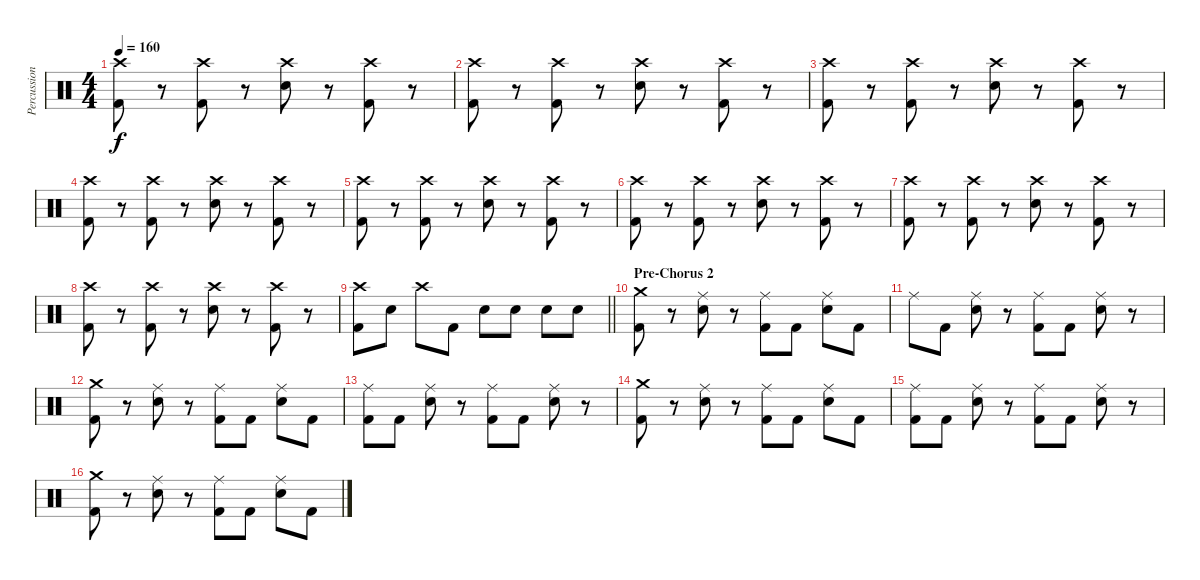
\track ("Percussion" "Percussion") {instrument percussion}
\staff {score}
\articulation defaults
\ts (4 4)
\tempo 160
\clef neutral
\ks c
("Crash high (hit)" "Kick (hit) 2").8{dy f} r.8 ("Crash high (hit)" "Kick (hit) 2").8 r.8 ("Crash high (hit)" "Electric Snare (hit)").8 r.8 ("Crash high (hit)" "Kick (hit) 2").8 r.8 |
("Crash high (hit)" "Kick (hit) 2").8 r.8 ("Crash high (hit)" "Kick (hit) 2").8 r.8 ("Crash high (hit)" "Electric Snare (hit)").8 r.8 ("Crash high (hit)" "Kick (hit) 2").8 r.8 |
("Crash high (hit)" "Kick (hit) 2").8 r.8 ("Crash high (hit)" "Kick (hit) 2").8 r.8 ("Crash high (hit)" "Electric Snare (hit)").8 r.8 ("Crash high (hit)" "Kick (hit) 2").8 r.8 |
("Crash high (hit)" "Kick (hit) 2").8 r.8 ("Crash high (hit)" "Kick (hit) 2").8 r.8 ("Crash high (hit)" "Electric Snare (hit)").8 r.8 ("Crash high (hit)" "Kick (hit) 2").8 r.8 |
("Crash high (hit)" "Kick (hit) 2").8 r.8 ("Crash high (hit)" "Kick (hit) 2").8 r.8 ("Crash high (hit)" "Electric Snare (hit)").8 r.8 ("Crash high (hit)" "Kick (hit) 2").8 r.8 |
("Crash high (hit)" "Kick (hit) 2").8 r.8 ("Crash high (hit)" "Kick (hit) 2").8 r.8 ("Crash high (hit)" "Electric Snare (hit)").8 r.8 ("Crash high (hit)" "Kick (hit) 2").8 r.8 |
("Crash high (hit)" "Kick (hit) 2").8 r.8 ("Crash high (hit)" "Kick (hit) 2").8 r.8 ("Crash high (hit)" "Electric Snare (hit)").8 r.8 ("Crash high (hit)" "Kick (hit) 2").8 r.8 |
("Crash high (hit)" "Kick (hit) 2").8 r.8 ("Crash high (hit)" "Kick (hit) 2").8 r.8 ("Crash high (hit)" "Electric Snare (hit)").8 r.8 ("Crash high (hit)" "Kick (hit) 2").8 r.8 |
\barLineRight lightlight
("Crash high (hit)" "Kick (hit) 2").8 "Electric Snare (hit)".8 "Crash high (hit)".8 "Kick (hit) 2".8 "Electric Snare (hit)".8 "Electric Snare (hit)".8 "Electric Snare (hit)".8 "Electric Snare (hit)".8 |
\section ("" "Pre-Chorus 2")
("Crash medium (hit)" "Kick (hit) 2").8 r.8 ("Ride (middle)" "Electric Snare (hit)").8 r.8 ("Ride (middle)" "Kick (hit) 2").8 "Kick (hit) 2".8 ("Ride (middle)" "Electric Snare (hit)").8 "Kick (hit) 2".8 |
"Ride (middle)".8 "Kick (hit) 2".8 ("Ride (middle)" "Electric Snare (hit)").8 r.8 ("Ride (middle)" "Kick (hit) 2").8 "Kick (hit) 2".8 ("Ride (middle)" "Electric Snare (hit)").8 r.8 |
("Crash medium (hit)" "Kick (hit) 2").8 r.8 ("Ride (middle)" "Electric Snare (hit)").8 r.8 ("Ride (middle)" "Kick (hit) 2").8 "Kick (hit) 2".8 ("Ride (middle)" "Electric Snare (hit)").8 "Kick (hit) 2".8 |
("Ride (middle)" "Kick (hit) 2").8 "Kick (hit) 2".8 ("Ride (middle)" "Electric Snare (hit)").8 r.8 ("Ride (middle)" "Kick (hit) 2").8 "Kick (hit) 2".8 ("Ride (middle)" "Electric Snare (hit)").8 r.8 |
("Crash medium (hit)" "Kick (hit) 2").8 r.8 ("Ride (middle)" "Electric Snare (hit)").8 r.8 ("Ride (middle)" "Kick (hit) 2").8 "Kick (hit) 2".8 ("Ride (middle)" "Electric Snare (hit)").8 "Kick (hit) 2".8 |
("Ride (middle)" "Kick (hit) 2").8 "Kick (hit) 2".8 ("Ride (middle)" "Electric Snare (hit)").8 r.8 ("Ride (middle)" "Kick (hit) 2").8 "Kick (hit) 2".8 ("Ride (middle)" "Electric Snare (hit)").8 r.8 |
("Crash medium (hit)" "Kick (hit) 2").8 r.8 ("Ride (middle)" "Electric Snare (hit)").8 r.8 ("Ride (middle)" "Kick (hit) 2").8 "Kick (hit) 2".8 ("Ride (middle)" "Electric Snare (hit)").8 "Kick (hit) 2".8
